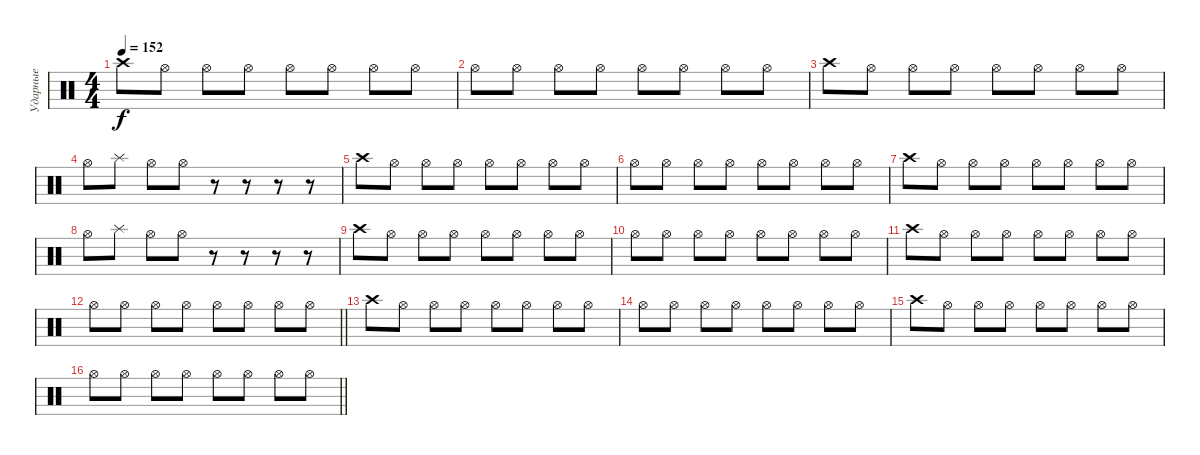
\track ("Ударные" "Ударные") {instrument percussion}
\staff {score}
\articulation defaults
\ts (4 4)
\tempo 152
\clef neutral
\ks c "Crash high (hit)".8{dy f} "Hi-Hat (open)".8 "Hi-Hat (open)".8 "Hi-Hat (open)".8 "Hi-Hat (open)".8 "Hi-Hat (open)".8 "Hi-Hat (open)".8 "Hi-Hat (open)".8
|
"Hi-Hat (open)".8 "Hi-Hat (open)".8 "Hi-Hat (open)".8 "Hi-Hat (open)".8 "Hi-Hat (open)".8 "Hi-Hat (open)".8 "Hi-Hat (open)".8 "Hi-Hat (open)".8 |
"Crash high (hit)".8 "Hi-Hat (open)".8 "Hi-Hat (open)".8 "Hi-Hat (open)".8 "Hi-Hat (open)".8 "Hi-Hat (open)".8 "Hi-Hat (open)".8 "Hi-Hat (open)".8 |
"Hi-Hat (open)".8 "Splash (hit)".8 "Hi-Hat (open)".8 "Hi-Hat (open)".8 r.8 r.8 r.8 r.8 |
"Crash high (hit)".8 "Hi-Hat (open)".8 "Hi-Hat (open)".8 "Hi-Hat (open)".8 "Hi-Hat (open)".8 "Hi-Hat (open)".8 "Hi-Hat (open)".8 "Hi-Hat (open)".8 |
"Hi-Hat (open)".8 "Hi-Hat (open)".8 "Hi-Hat (open)".8 "Hi-Hat (open)".8 "Hi-Hat (open)".8 "Hi-Hat (open)".8 "Hi-Hat (open)".8 "Hi-Hat (open)".8 |
"Crash high (hit)".8 "Hi-Hat (open)".8 "Hi-Hat (open)".8 "Hi-Hat (open)".8 "Hi-Hat (open)".8 "Hi-Hat (open)".8 "Hi-Hat (open)".8 "Hi-Hat (open)".8 |
"Hi-Hat (open)".8 "Splash (hit)".8 "Hi-Hat (open)".8 "Hi-Hat (open)".8 r.8 r.8 r.8 r.8 |
"Crash high (hit)".8 "Hi-Hat (open)".8 "Hi-Hat (open)".8 "Hi-Hat (open)".8 "Hi-Hat (open)".8 "Hi-Hat (open)".8 "Hi-Hat (open)".8 "Hi-Hat (open)".8 |
"Hi-Hat (open)".8 "Hi-Hat (open)".8 "Hi-Hat (open)".8 "Hi-Hat (open)".8 "Hi-Hat (open)".8 "Hi-Hat (open)".8 "Hi-Hat (open)".8 "Hi-Hat (open)".8 |
"Crash high (hit)".8 "Hi-Hat (open)".8 "Hi-Hat (open)".8 "Hi-Hat (open)".8 "Hi-Hat (open)".8 "Hi-Hat (open)".8 "Hi-Hat (open)".8 "Hi-Hat (open)".8 |
\barLineRight lightlight "Hi-Hat (open)".8 "Hi-Hat (open)".8 "Hi-Hat (open)".8 "Hi-Hat (open)".8 "Hi-Hat (open)".8 "Hi-Hat (open)".8 "Hi-Hat (open)".8 "Hi-Hat (open)".8
|
"Crash high (hit)".8 "Hi-Hat (open)".8 "Hi-Hat (open)".8 "Hi-Hat (open)".8 "Hi-Hat (open)".8 "Hi-Hat (open)".8 "Hi-Hat (open)".8 "Hi-Hat (open)".8 |
"Hi-Hat (open)".8 "Hi-Hat (open)".8 "Hi-Hat (open)".8 "Hi-Hat (open)".8 "Hi-Hat (open)".8 "Hi-Hat (open)".8 "Hi-Hat (open)".8 "Hi-Hat (open)".8 |
"Crash high (hit)".8 "Hi-Hat (open)".8 "Hi-Hat (open)".8 "Hi-Hat (open)".8 "Hi-Hat (open)".8 "Hi-Hat (open)".8 "Hi-Hat (open)".8 "Hi-Hat (open)".8 |
\barLineRight lightlight "Hi-Hat (open)".8 "Hi-Hat (open)".8 "Hi-Hat (open)".8 "Hi-Hat (open)".8 "Hi-Hat (open)".8 "Hi-Hat (open)".8 "Hi-Hat (open)".8 "Hi-Hat (open)".8
